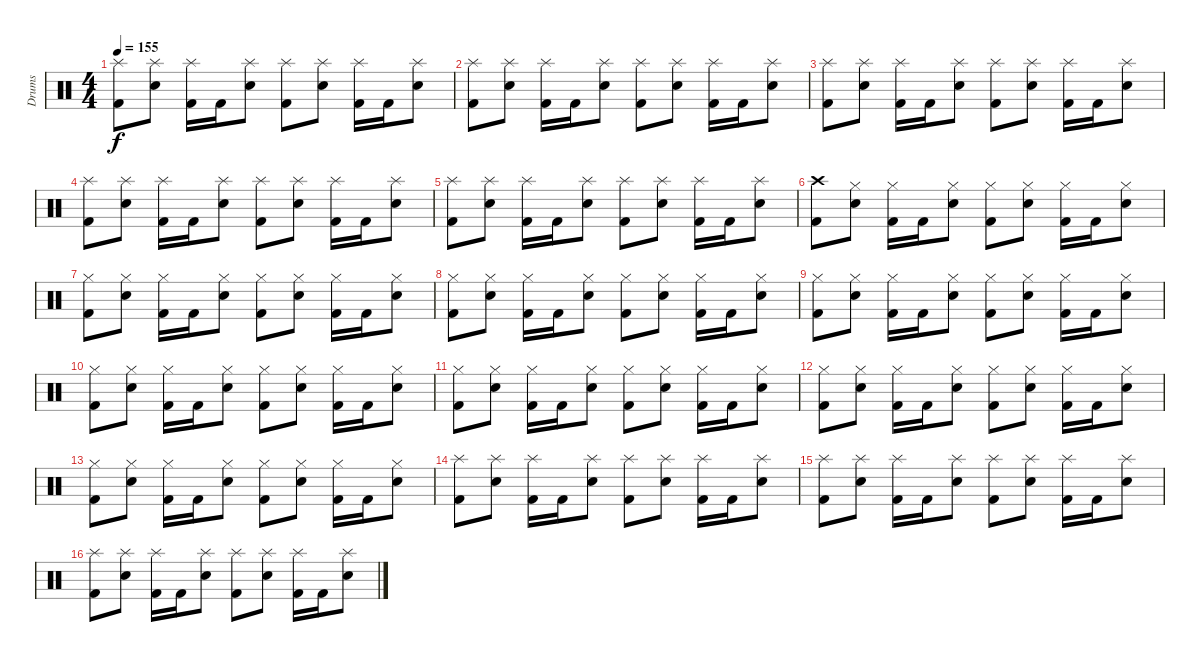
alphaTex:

\track ("Drums" "Drums") {instrument percussion}
\staff {score}
\articulation defaults
\ts (4 4)
\tempo 155
\clef neutral
\ks c
("Splash (hit)" "Kick (hit) 2").8{dy f} ("Splash (hit)" "Snare (hit) 2").8 ("Splash (hit)" "Kick (hit) 2").16 "Kick (hit) 2".16 ("Splash (hit)" "Snare (hit) 2").8 ("Splash (hit)" "Kick (hit) 2").8 ("Splash (hit)" "Snare (hit) 2").8 ("Splash (hit)" "Kick (hit) 2").16 "Kick (hit) 2".16 ("Splash (hit)" "Snare (hit) 2").8 |
("Splash (hit)" "Kick (hit) 2").8 ("Splash (hit)" "Snare (hit) 2").8 ("Splash (hit)" "Kick (hit) 2").16 "Kick (hit) 2".16 ("Splash (hit)" "Snare (hit) 2").8 ("Splash (hit)" "Kick (hit) 2").8 ("Splash (hit)" "Snare (hit) 2").8 ("Splash (hit)" "Kick (hit) 2").16 "Kick (hit) 2".16 ("Splash (hit)" "Snare (hit) 2").8 |
("Splash (hit)" "Kick (hit) 2").8 ("Splash (hit)" "Snare (hit) 2").8 ("Splash (hit)" "Kick (hit) 2").16 "Kick (hit) 2".16 ("Splash (hit)" "Snare (hit) 2").8 ("Splash (hit)" "Kick (hit) 2").8 ("Splash (hit)" "Snare (hit) 2").8 ("Splash (hit)" "Kick (hit) 2").16 "Kick (hit) 2".16 ("Splash (hit)" "Snare (hit) 2").8 |
("Splash (hit)" "Kick (hit) 2").8 ("Splash (hit)" "Snare (hit) 2").8 ("Splash (hit)" "Kick (hit) 2").16 "Kick (hit) 2".16 ("Splash (hit)" "Snare (hit) 2").8 ("Splash (hit)" "Kick (hit) 2").8 ("Splash (hit)" "Snare (hit) 2").8 ("Splash (hit)" "Kick (hit) 2").16 "Kick (hit) 2".16 ("Splash (hit)" "Snare (hit) 2").8 |
("Splash (hit)" "Kick (hit) 2").8 ("Splash (hit)" "Snare (hit) 2").8 ("Splash (hit)" "Kick (hit) 2").16 "Kick (hit) 2".16 ("Splash (hit)" "Snare (hit) 2").8 ("Splash (hit)" "Kick (hit) 2").8 ("Splash (hit)" "Snare (hit) 2").8 ("Splash (hit)" "Kick (hit) 2").16 "Kick (hit) 2".16 ("Splash (hit)" "Snare (hit) 2").8 |
("Crash high (hit)" "Kick (hit) 2").8 ("Hi-Hat (closed)" "Snare (hit) 2").8 ("Hi-Hat (closed)" "Kick (hit) 2").16 "Kick (hit) 2".16 ("Hi-Hat (closed)" "Snare (hit) 2").8 ("Hi-Hat (closed)" "Kick (hit) 2").8 ("Hi-Hat (closed)" "Snare (hit) 2").8 ("Hi-Hat (closed)" "Kick (hit) 2").16 "Kick (hit) 2".16 ("Hi-Hat (closed)" "Snare (hit) 2").8 |
("Hi-Hat (closed)" "Kick (hit) 2").8 ("Hi-Hat (closed)" "Snare (hit) 2").8 ("Hi-Hat (closed)" "Kick (hit) 2").16 "Kick (hit) 2".16 ("Hi-Hat (closed)" "Snare (hit) 2").8 ("Hi-Hat (closed)" "Kick (hit) 2").8 ("Hi-Hat (closed)" "Snare (hit) 2").8 ("Hi-Hat (closed)" "Kick (hit) 2").16 "Kick (hit) 2".16 ("Hi-Hat (closed)" "Snare (hit) 2").8 |
("Hi-Hat (closed)" "Kick (hit) 2").8 ("Hi-Hat (closed)" "Snare (hit) 2").8 ("Hi-Hat (closed)" "Kick (hit) 2").16 "Kick (hit) 2".16 ("Hi-Hat (closed)" "Snare (hit) 2").8 ("Hi-Hat (closed)" "Kick (hit) 2").8 ("Hi-Hat (closed)" "Snare (hit) 2").8 ("Hi-Hat (closed)" "Kick (hit) 2").16 "Kick (hit) 2".16 ("Hi-Hat (closed)" "Snare (hit) 2").8 |
("Hi-Hat (closed)" "Kick (hit) 2").8 ("Hi-Hat (closed)" "Snare (hit) 2").8 ("Hi-Hat (closed)" "Kick (hit) 2").16 "Kick (hit) 2".16 ("Hi-Hat (closed)" "Snare (hit) 2").8 ("Hi-Hat (closed)" "Kick (hit) 2").8 ("Hi-Hat (closed)" "Snare (hit) 2").8 ("Hi-Hat (closed)" "Kick (hit) 2").16 "Kick (hit) 2".16 ("Hi-Hat (closed)" "Snare (hit) 2").8 |
("Hi-Hat (closed)" "Kick (hit) 2").8 ("Hi-Hat (closed)" "Snare (hit) 2").8 ("Hi-Hat (closed)" "Kick (hit) 2").16 "Kick (hit) 2".16 ("Hi-Hat (closed)" "Snare (hit) 2").8 ("Hi-Hat (closed)" "Kick (hit) 2").8 ("Hi-Hat (closed)" "Snare (hit) 2").8 ("Hi-Hat (closed)" "Kick (hit) 2").16 "Kick (hit) 2".16 ("Hi-Hat (closed)" "Snare (hit) 2").8 |
("Hi-Hat (closed)" "Kick (hit) 2").8 ("Hi-Hat (closed)" "Snare (hit) 2").8 ("Hi-Hat (closed)" "Kick (hit) 2").16 "Kick (hit) 2".16 ("Hi-Hat (closed)" "Snare (hit) 2").8 ("Hi-Hat (closed)" "Kick (hit) 2").8 ("Hi-Hat (closed)" "Snare (hit) 2").8 ("Hi-Hat (closed)" "Kick (hit) 2").16 "Kick (hit) 2".16 ("Hi-Hat (closed)" "Snare (hit) 2").8 |
("Hi-Hat (closed)" "Kick (hit) 2").8 ("Hi-Hat (closed)" "Snare (hit) 2").8 ("Hi-Hat (closed)" "Kick (hit) 2").16 "Kick (hit) 2".16 ("Hi-Hat (closed)" "Snare (hit) 2").8 ("Hi-Hat (closed)" "Kick (hit) 2").8 ("Hi-Hat (closed)" "Snare (hit) 2").8 ("Hi-Hat (closed)" "Kick (hit) 2").16 "Kick (hit) 2".16 ("Hi-Hat (closed)" "Snare (hit) 2").8 |
("Hi-Hat (closed)" "Kick (hit) 2").8 ("Hi-Hat (closed)" "Snare (hit) 2").8 ("Hi-Hat (closed)" "Kick (hit) 2").16 "Kick (hit) 2".16 ("Hi-Hat (closed)" "Snare (hit) 2").8 ("Hi-Hat (closed)" "Kick (hit) 2").8 ("Hi-Hat (closed)" "Snare (hit) 2").8 ("Hi-Hat (closed)" "Kick (hit) 2").16 "Kick (hit) 2".16 ("Hi-Hat (closed)" "Snare (hit) 2").8 |
("Splash (hit)" "Kick (hit) 2").8 ("Splash (hit)" "Snare (hit) 2").8 ("Splash (hit)" "Kick (hit) 2").16 "Kick (hit) 2".16 ("Splash (hit)" "Snare (hit) 2").8 ("Splash (hit)" "Kick (hit) 2").8 ("Splash (hit)" "Snare (hit) 2").8 ("Splash (hit)" "Kick (hit) 2").16 "Kick (hit) 2".16 ("Splash (hit)" "Snare (hit) 2").8 |
("Splash (hit)" "Kick (hit) 2").8 ("Splash (hit)" "Snare (hit) 2").8 ("Splash (hit)" "Kick (hit) 2").16 "Kick (hit) 2".16 ("Splash (hit)" "Snare (hit) 2").8 ("Splash (hit)" "Kick (hit) 2").8 ("Splash (hit)" "Snare (hit) 2").8 ("Splash (hit)" "Kick (hit) 2").16 "Kick (hit) 2".16 ("Splash (hit)" "Snare (hit) 2").8 |
("Splash (hit)" "Kick (hit) 2").8 ("Splash (hit)" "Snare (hit) 2").8 ("Splash (hit)" "Kick (hit) 2").16 "Kick (hit) 2".16 ("Splash (hit)" "Snare (hit) 2").8 ("Splash (hit)" "Kick (hit) 2").8 ("Splash (hit)" "Snare (hit) 2").8 ("Splash (hit)" "Kick (hit) 2").16 "Kick (hit) 2".16 ("Splash (hit)" "Snare (hit) 2").8
